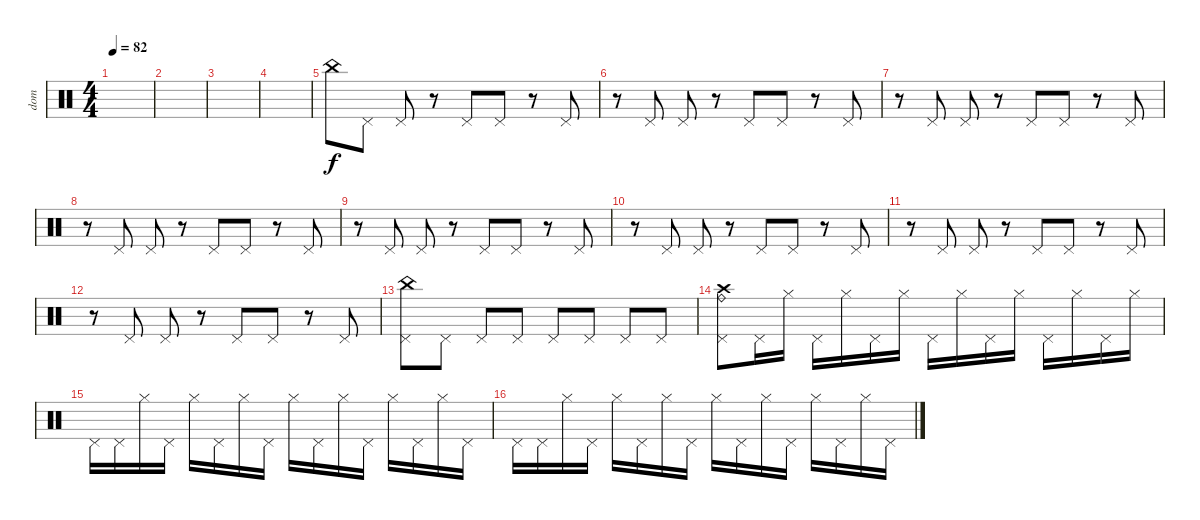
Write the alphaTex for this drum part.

\track ("dom" "dom") {instrument percussion}
\staff {score}
\articulation defaults
\ts (4 4)
\tempo 82
\clef neutral
\ks c
|
|
|
|
"China (hit)".8 "Pedal Hi-Hat (hit)".8 "Pedal Hi-Hat (hit)".8 r.8 "Pedal Hi-Hat (hit)".8 "Pedal Hi-Hat (hit)".8 r.8 "Pedal Hi-Hat (hit)".8 |
r.8 "Pedal Hi-Hat (hit)".8 "Pedal Hi-Hat (hit)".8 r.8 "Pedal Hi-Hat (hit)".8 "Pedal Hi-Hat (hit)".8 r.8 "Pedal Hi-Hat (hit)".8 |
r.8 "Pedal Hi-Hat (hit)".8 "Pedal Hi-Hat (hit)".8 r.8 "Pedal Hi-Hat (hit)".8 "Pedal Hi-Hat (hit)".8 r.8 "Pedal Hi-Hat (hit)".8 |
r.8 "Pedal Hi-Hat (hit)".8 "Pedal Hi-Hat (hit)".8 r.8 "Pedal Hi-Hat (hit)".8 "Pedal Hi-Hat (hit)".8 r.8 "Pedal Hi-Hat (hit)".8 |
r.8 "Pedal Hi-Hat (hit)".8 "Pedal Hi-Hat (hit)".8 r.8 "Pedal Hi-Hat (hit)".8 "Pedal Hi-Hat (hit)".8 r.8 "Pedal Hi-Hat (hit)".8 |
r.8 "Pedal Hi-Hat (hit)".8 "Pedal Hi-Hat (hit)".8 r.8 "Pedal Hi-Hat (hit)".8 "Pedal Hi-Hat (hit)".8 r.8 "Pedal Hi-Hat (hit)".8 |
r.8 "Pedal Hi-Hat (hit)".8 "Pedal Hi-Hat (hit)".8 r.8 "Pedal Hi-Hat (hit)".8 "Pedal Hi-Hat (hit)".8 r.8 "Pedal Hi-Hat (hit)".8 |
r.8 "Pedal Hi-Hat (hit)".8 "Pedal Hi-Hat (hit)".8 r.8 "Pedal Hi-Hat (hit)".8 "Pedal Hi-Hat (hit)".8 r.8 "Pedal Hi-Hat (hit)".8 |
("China (hit)" "Pedal Hi-Hat (hit)").8 "Pedal Hi-Hat (hit)".8 "Pedal Hi-Hat (hit)".8 "Pedal Hi-Hat (hit)".8 "Pedal Hi-Hat (hit)".8 "Pedal Hi-Hat (hit)".8 "Pedal Hi-Hat (hit)".8 "Pedal Hi-Hat (hit)".8 |
("Crash high (hit)" "Ride (bell)" "Pedal Hi-Hat (hit)").8 "Pedal Hi-Hat (hit)".16 "Hi-Hat (closed)".16 "Pedal Hi-Hat (hit)".16 "Hi-Hat (closed)".16 "Pedal Hi-Hat (hit)".16 "Hi-Hat (closed)".16 "Pedal Hi-Hat (hit)".16 "Hi-Hat (closed)".16 "Pedal Hi-Hat (hit)".16 "Hi-Hat (closed)".16 "Pedal Hi-Hat (hit)".16 "Hi-Hat (closed)".16 "Pedal Hi-Hat (hit)".16 "Hi-Hat (closed)".16 |
"Pedal Hi-Hat (hit)".16 "Pedal Hi-Hat (hit)".16 "Hi-Hat (closed)".16 "Pedal Hi-Hat (hit)".16 "Hi-Hat (closed)".16 "Pedal Hi-Hat (hit)".16 "Hi-Hat (closed)".16 "Pedal Hi-Hat (hit)".16 "Hi-Hat (closed)".16 "Pedal Hi-Hat (hit)".16 "Hi-Hat (closed)".16 "Pedal Hi-Hat (hit)".16 "Hi-Hat (closed)".16 "Pedal Hi-Hat (hit)".16 "Hi-Hat (closed)".16 "Pedal Hi-Hat (hit)".16 |
"Pedal Hi-Hat (hit)".16 "Pedal Hi-Hat (hit)".16 "Hi-Hat (closed)".16 "Pedal Hi-Hat (hit)".16 "Hi-Hat (closed)".16 "Pedal Hi-Hat (hit)".16 "Hi-Hat (closed)".16 "Pedal Hi-Hat (hit)".16 "Hi-Hat (closed)".16 "Pedal Hi-Hat (hit)".16 "Hi-Hat (closed)".16 "Pedal Hi-Hat (hit)".16 "Hi-Hat (closed)".16 "Pedal Hi-Hat (hit)".16 "Hi-Hat (closed)".16 "Pedal Hi-Hat (hit)".16
